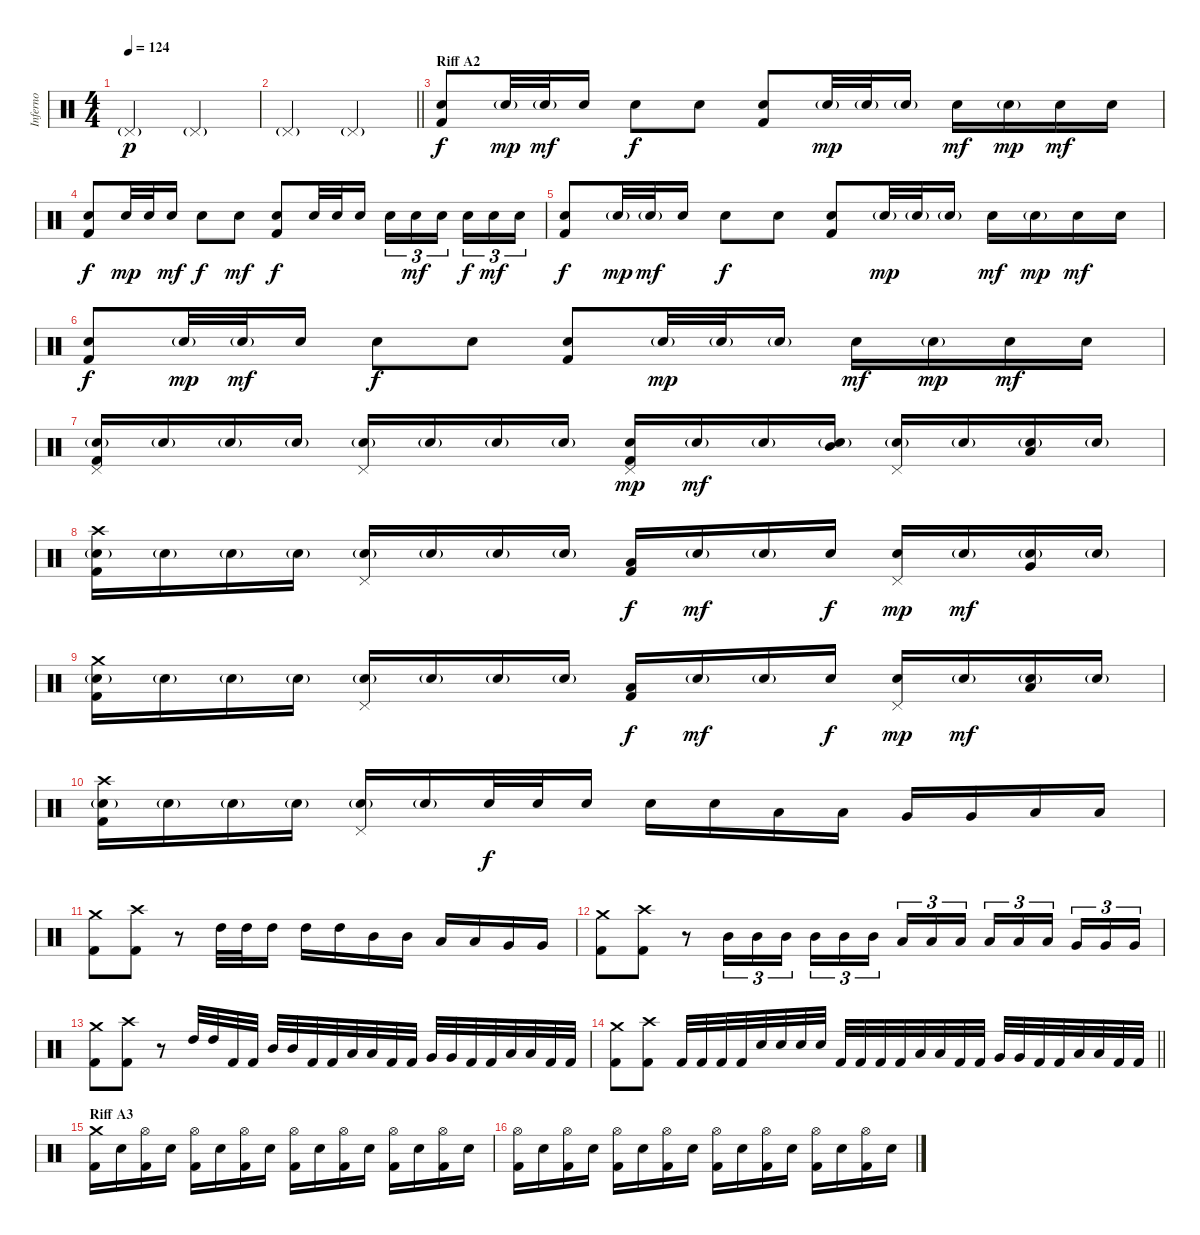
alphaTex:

\track ("Inferno" "Inferno") {instrument percussion}
\staff {score}
\articulation defaults
\ts (4 4)
\tempo 124
\clef neutral
\ks c "Pedal Hi-Hat (hit)"{g}.2{dy p} "Pedal Hi-Hat (hit)"{g}.2
|
\barLineRight lightlight "Pedal Hi-Hat (hit)"{g}.2 "Pedal Hi-Hat (hit)"{g}.2
|
\section ("" "Riff A2")
("Snare (hit) 2" "Kick (hit) 2").8{dy f} "Snare (hit) 2"{g}.32{dy mp} "Snare (hit) 2"{g}.32{dy mf} "Snare (hit) 2".16 "Snare (hit) 2".8{dy f} "Snare (hit) 2".8 ("Snare (hit) 2" "Kick (hit) 2").8 "Snare (hit) 2"{g}.32{dy mp} "Snare (hit) 2"{g}.32 "Snare (hit) 2"{g}.16 "Snare (hit) 2".16{dy mf} "Snare (hit) 2"{g}.16{dy mp} "Snare (hit) 2".16{dy mf} "Snare (hit) 2".16 |
("Snare (hit) 2" "Kick (hit) 2").8{dy f} "Snare (hit) 2".32{dy mp} "Snare (hit) 2".32 "Snare (hit) 2".16{dy mf} "Snare (hit) 2".8{dy f} "Snare (hit) 2".8{dy mf} ("Snare (hit) 2" "Kick (hit) 2").8{dy f} "Snare (hit) 2".32 "Snare (hit) 2".32 "Snare (hit) 2".16 "Snare (hit) 2".16{tu (3 2)} "Snare (hit) 2".16{tu (3 2) dy mf} "Snare (hit) 2".16{tu (3 2) beam splitsecondary} "Snare (hit) 2".16{tu (3 2) dy f} "Snare (hit) 2".16{tu (3 2) dy mf} "Snare (hit) 2".16{tu (3 2)} |
("Snare (hit) 2" "Kick (hit) 2").8{dy f} "Snare (hit) 2"{g}.32{dy mp} "Snare (hit) 2"{g}.32{dy mf} "Snare (hit) 2".16 "Snare (hit) 2".8{dy f} "Snare (hit) 2".8 ("Snare (hit) 2" "Kick (hit) 2").8 "Snare (hit) 2"{g}.32{dy mp} "Snare (hit) 2"{g}.32 "Snare (hit) 2"{g}.16 "Snare (hit) 2".16{dy mf} "Snare (hit) 2"{g}.16{dy mp} "Snare (hit) 2".16{dy mf} "Snare (hit) 2".16 |
("Snare (hit) 2" "Kick (hit) 2").8{dy f} "Snare (hit) 2"{g}.32{dy mp} "Snare (hit) 2"{g}.32{dy mf} "Snare (hit) 2".16 "Snare (hit) 2".8{dy f} "Snare (hit) 2".8 ("Snare (hit) 2" "Kick (hit) 2").8 "Snare (hit) 2"{g}.32{dy mp} "Snare (hit) 2"{g}.32 "Snare (hit) 2"{g}.16 "Snare (hit) 2".16{dy mf} "Snare (hit) 2"{g}.16{dy mp} "Snare (hit) 2".16{dy mf} "Snare (hit) 2".16 |
("Pedal Hi-Hat (hit)" "Snare (hit) 2"{g} "Kick (hit) 2").16 "Snare (hit) 2"{g}.16 "Snare (hit) 2"{g}.16 "Snare (hit) 2"{g}.16 ("Pedal Hi-Hat (hit)" "Snare (hit) 2"{g}).16 "Snare (hit) 2"{g}.16 "Snare (hit) 2"{g}.16 "Snare (hit) 2"{g}.16 ("Pedal Hi-Hat (hit)" "Snare (hit) 2" "Kick (hit) 2").16{dy mp} "Snare (hit) 2"{g}.16{dy mf} "Snare (hit) 2"{g}.16 ("Mid Tom (hit)" "Snare (hit) 2"{g}).16 ("Pedal Hi-Hat (hit)" "Snare (hit) 2"{g}).16 "Snare (hit) 2"{g}.16 ("Low Tom (hit)" "Snare (hit) 2"{g}).16 "Snare (hit) 2"{g}.16 |
("Crash high (hit)" "Snare (hit) 2"{g} "Kick (hit) 2").16 "Snare (hit) 2"{g}.16 "Snare (hit) 2"{g}.16 "Snare (hit) 2"{g}.16 ("Pedal Hi-Hat (hit)" "Snare (hit) 2"{g}).16 "Snare (hit) 2"{g}.16 "Snare (hit) 2"{g}.16 "Snare (hit) 2"{g}.16 ("Low Tom (hit)" "Kick (hit) 2").16{dy f} "Snare (hit) 2"{g}.16{dy mf} "Snare (hit) 2"{g}.16 "Snare (hit) 2".16{dy f} ("Pedal Hi-Hat (hit)" "Snare (hit) 2").16{dy mp} "Snare (hit) 2"{g}.16{dy mf} ("Very Low Tom (hit)" "Snare (hit) 2"{g}).16 "Snare (hit) 2"{g}.16 |
("Crash medium (hit)" "Snare (hit) 2"{g} "Kick (hit) 2").16 "Snare (hit) 2"{g}.16 "Snare (hit) 2"{g}.16 "Snare (hit) 2"{g}.16 ("Pedal Hi-Hat (hit)" "Snare (hit) 2"{g}).16 "Snare (hit) 2"{g}.16 "Snare (hit) 2"{g}.16 "Snare (hit) 2"{g}.16 ("Low Tom (hit)" "Kick (hit) 2").16{dy f} "Snare (hit) 2"{g}.16{dy mf} "Snare (hit) 2"{g}.16 "Snare (hit) 2".16{dy f} ("Pedal Hi-Hat (hit)" "Snare (hit) 2").16{dy mp} "Snare (hit) 2"{g}.16{dy mf} ("Low Floor Tom (hit)" "Snare (hit) 2"{g}).16 "Snare (hit) 2"{g}.16 |
("Crash high (hit)" "Snare (hit) 2"{g} "Kick (hit) 2").16 "Snare (hit) 2"{g}.16 "Snare (hit) 2"{g}.16 "Snare (hit) 2"{g}.16 ("Pedal Hi-Hat (hit)" "Snare (hit) 2"{g}).16 "Snare (hit) 2"{g}.16 "Snare (hit) 2".32{dy f} "Snare (hit) 2".32 "Snare (hit) 2".16 "Snare (hit) 2".16 "Snare (hit) 2".16 "Low Tom (hit)".16 "Low Tom (hit)".16 "Very Low Tom (hit)".16 "Very Low Tom (hit)".16 "Low Floor Tom (hit)".16 "Low Floor Tom (hit)".16 |
("Crash medium (hit)" "Kick (hit) 2").8 ("Crash high (hit)" "Kick (hit) 2").8 r.8 "High Tom (hit)".32 "High Tom (hit)".32 "High Tom (hit)".16 "High Tom (hit)".16 "High Tom (hit)".16 "Mid Tom (hit)".16 "Mid Tom (hit)".16 "Low Tom (hit)".16 "Low Tom (hit)".16 "Very Low Tom (hit)".16 "Very Low Tom (hit)".16 |
("Crash medium (hit)" "Kick (hit) 2").8 ("Crash high (hit)" "Kick (hit) 2").8 r.8 "Mid Tom (hit)".16{tu (3 2)} "Mid Tom (hit)".16{tu (3 2)} "Mid Tom (hit)".16{tu (3 2)} "Mid Tom (hit)".16{tu (3 2)} "Mid Tom (hit)".16{tu (3 2)} "Mid Tom (hit)".16{tu (3 2) beam splitsecondary} "Low Tom (hit)".16{tu (3 2)} "Low Tom (hit)".16{tu (3 2)} "Low Tom (hit)".16{tu (3 2)} "Low Tom (hit)".16{tu (3 2)} "Low Tom (hit)".16{tu (3 2)} "Low Tom (hit)".16{tu (3 2) beam splitsecondary} "Very Low Tom (hit)".16{tu (3 2)} "Very Low Tom (hit)".16{tu (3 2)} "Very Low Tom (hit)".16{tu (3 2)} |
("Crash medium (hit)" "Kick (hit) 2").8 ("Crash high (hit)" "Kick (hit) 2").8 r.8 "High Tom (hit)".32 "High Tom (hit)".32 "Kick (hit) 2".32 "Kick (hit) 2".32 "Mid Tom (hit)".32 "Mid Tom (hit)".32 "Kick (hit) 2".32 "Kick (hit) 2".32 "Low Tom (hit)".32 "Low Tom (hit)".32 "Kick (hit) 2".32 "Kick (hit) 2".32 "Very Low Tom (hit)".32 "Very Low Tom (hit)".32 "Kick (hit) 2".32 "Kick (hit) 2".32 "Low Floor Tom (hit)".32 "Low Floor Tom (hit)".32 "Kick (hit) 2".32 "Kick (hit) 2".32 |
\barLineRight lightlight
("Crash medium (hit)" "Kick (hit) 2").8 ("Crash high (hit)" "Kick (hit) 2").8 "Kick (hit) 2".32 "Kick (hit) 2".32 "Kick (hit) 2".32 "Kick (hit) 2".32 "Snare (hit) 2".32 "Snare (hit) 2".32 "Snare (hit) 2".32 "Snare (hit) 2".32 "Kick (hit) 2".32 "Kick (hit) 2".32 "Kick (hit) 2".32 "Kick (hit) 2".32 "Low Tom (hit)".32 "Low Tom (hit)".32 "Kick (hit) 2".32 "Kick (hit) 2".32 "Very Low Tom (hit)".32 "Very Low Tom (hit)".32 "Kick (hit) 2".32 "Kick (hit) 2".32 "Low Floor Tom (hit)".32 "Low Floor Tom (hit)".32 "Kick (hit) 2".32 "Kick (hit) 2".32 |
\section ("" "Riff A3")
("Crash medium (hit)" "Kick (hit) 2").16 "Snare (hit) 2".16 ("Hi-Hat (open)" "Kick (hit) 2").16 "Snare (hit) 2".16 ("Hi-Hat (open)" "Kick (hit) 2").16 "Snare (hit) 2".16 ("Hi-Hat (open)" "Kick (hit) 2").16 "Snare (hit) 2".16 ("Hi-Hat (open)" "Kick (hit) 2").16 "Snare (hit) 2".16 ("Hi-Hat (open)" "Kick (hit) 2").16 "Snare (hit) 2".16 ("Hi-Hat (open)" "Kick (hit) 2").16 "Snare (hit) 2".16 ("Hi-Hat (open)" "Kick (hit) 2").16 "Snare (hit) 2".16 |
("Hi-Hat (open)" "Kick (hit) 2").16 "Snare (hit) 2".16 ("Hi-Hat (open)" "Kick (hit) 2").16 "Snare (hit) 2".16 ("Hi-Hat (open)" "Kick (hit) 2").16 "Snare (hit) 2".16 ("Hi-Hat (open)" "Kick (hit) 2").16 "Snare (hit) 2".16 ("Hi-Hat (open)" "Kick (hit) 2").16 "Snare (hit) 2".16 ("Hi-Hat (open)" "Kick (hit) 2").16 "Snare (hit) 2".16 ("Hi-Hat (open)" "Kick (hit) 2").16 "Snare (hit) 2".16 ("Hi-Hat (open)" "Kick (hit) 2").16 "Snare (hit) 2".16
